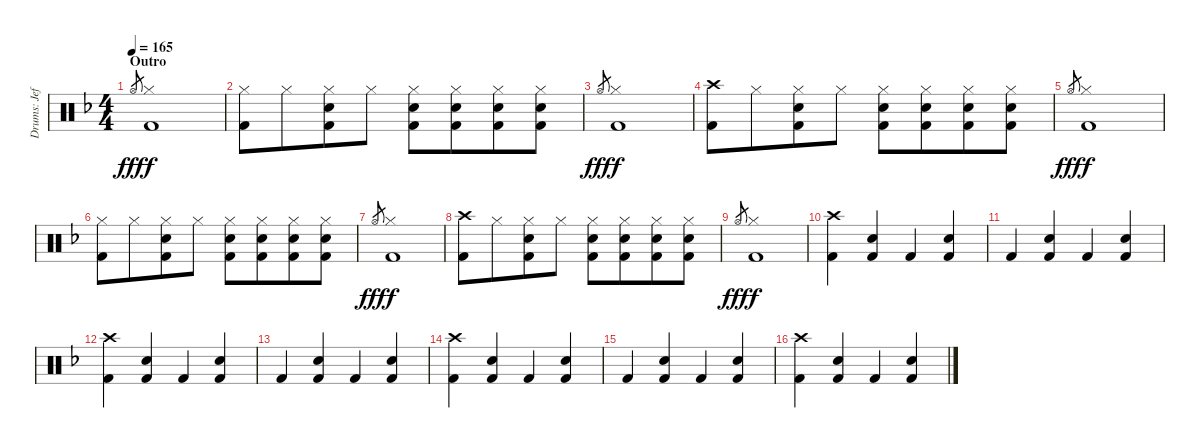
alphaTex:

\track ("Drums: Jeff" "Drums: Jef") {instrument percussion}
\staff {score}
\articulation defaults
\ts (4 4)
\section ("" "Outro")
\tempo 165
\clef neutral
\ks f "Hi-Hat (open)".8{gr dy fff}
("Hi-Hat (closed)" "Kick (hit) 2").1{dy f} |
("Hi-Hat (closed)" "Kick (hit) 2").8 "Hi-Hat (closed)".8{beam merge} ("Hi-Hat (closed)" "Snare (hit) 2" "Kick (hit) 2").8 "Hi-Hat (closed)".8{beam split} ("Hi-Hat (closed)" "Snare (hit) 2" "Kick (hit) 2").8{beam merge} ("Hi-Hat (closed)" "Snare (hit) 2" "Kick (hit) 2").8{beam merge} ("Hi-Hat (closed)" "Snare (hit) 2" "Kick (hit) 2").8{beam merge} ("Hi-Hat (closed)" "Snare (hit) 2" "Kick (hit) 2").8 |
"Hi-Hat (open)".8{gr dy fff} ("Hi-Hat (closed)" "Kick (hit) 2").1{dy f} |
("Crash high (hit)" "Kick (hit) 2").8 "Hi-Hat (closed)".8{beam merge} ("Hi-Hat (closed)" "Snare (hit) 2" "Kick (hit) 2").8 "Hi-Hat (closed)".8{beam split} ("Hi-Hat (closed)" "Snare (hit) 2" "Kick (hit) 2").8{beam merge} ("Hi-Hat (closed)" "Snare (hit) 2" "Kick (hit) 2").8{beam merge} ("Hi-Hat (closed)" "Snare (hit) 2" "Kick (hit) 2").8{beam merge} ("Hi-Hat (closed)" "Snare (hit) 2" "Kick (hit) 2").8 |
"Hi-Hat (open)".8{gr dy fff} ("Hi-Hat (closed)" "Kick (hit) 2").1{dy f} |
("Hi-Hat (closed)" "Kick (hit) 2").8 "Hi-Hat (closed)".8{beam merge} ("Hi-Hat (closed)" "Snare (hit) 2" "Kick (hit) 2").8 "Hi-Hat (closed)".8{beam split} ("Hi-Hat (closed)" "Snare (hit) 2" "Kick (hit) 2").8{beam merge} ("Hi-Hat (closed)" "Snare (hit) 2" "Kick (hit) 2").8{beam merge} ("Hi-Hat (closed)" "Snare (hit) 2" "Kick (hit) 2").8{beam merge} ("Hi-Hat (closed)" "Snare (hit) 2" "Kick (hit) 2").8 |
"Hi-Hat (open)".8{gr dy fff} ("Hi-Hat (closed)" "Kick (hit) 2").1{dy f} |
("Crash high (hit)" "Kick (hit) 2").8 "Hi-Hat (closed)".8{beam merge} ("Hi-Hat (closed)" "Snare (hit) 2" "Kick (hit) 2").8 "Hi-Hat (closed)".8{beam split} ("Hi-Hat (closed)" "Snare (hit) 2" "Kick (hit) 2").8{beam merge} ("Hi-Hat (closed)" "Snare (hit) 2" "Kick (hit) 2").8{beam merge} ("Hi-Hat (closed)" "Snare (hit) 2" "Kick (hit) 2").8{beam merge} ("Hi-Hat (closed)" "Snare (hit) 2" "Kick (hit) 2").8 |
"Hi-Hat (open)".8{gr dy fff} ("Hi-Hat (closed)" "Kick (hit) 2").1{dy f} |
("Crash high (hit)" "Kick (hit) 2").4 ("Snare (hit) 2" "Kick (hit) 2").4 "Kick (hit) 2".4 ("Snare (hit) 2" "Kick (hit) 2").4 |
"Kick (hit) 2".4 ("Snare (hit) 2" "Kick (hit) 2").4 "Kick (hit) 2".4 ("Snare (hit) 2" "Kick (hit) 2").4 |
("Crash high (hit)" "Kick (hit) 2").4 ("Snare (hit) 2" "Kick (hit) 2").4 "Kick (hit) 2".4 ("Snare (hit) 2" "Kick (hit) 2").4 |
"Kick (hit) 2".4 ("Snare (hit) 2" "Kick (hit) 2").4 "Kick (hit) 2".4 ("Snare (hit) 2" "Kick (hit) 2").4 |
("Crash high (hit)" "Kick (hit) 2").4 ("Snare (hit) 2" "Kick (hit) 2").4 "Kick (hit) 2".4 ("Snare (hit) 2" "Kick (hit) 2").4 |
"Kick (hit) 2".4 ("Snare (hit) 2" "Kick (hit) 2").4 "Kick (hit) 2".4 ("Snare (hit) 2" "Kick (hit) 2").4 |
("Crash high (hit)" "Kick (hit) 2").4 ("Snare (hit) 2" "Kick (hit) 2").4 "Kick (hit) 2".4 ("Snare (hit) 2" "Kick (hit) 2").4
